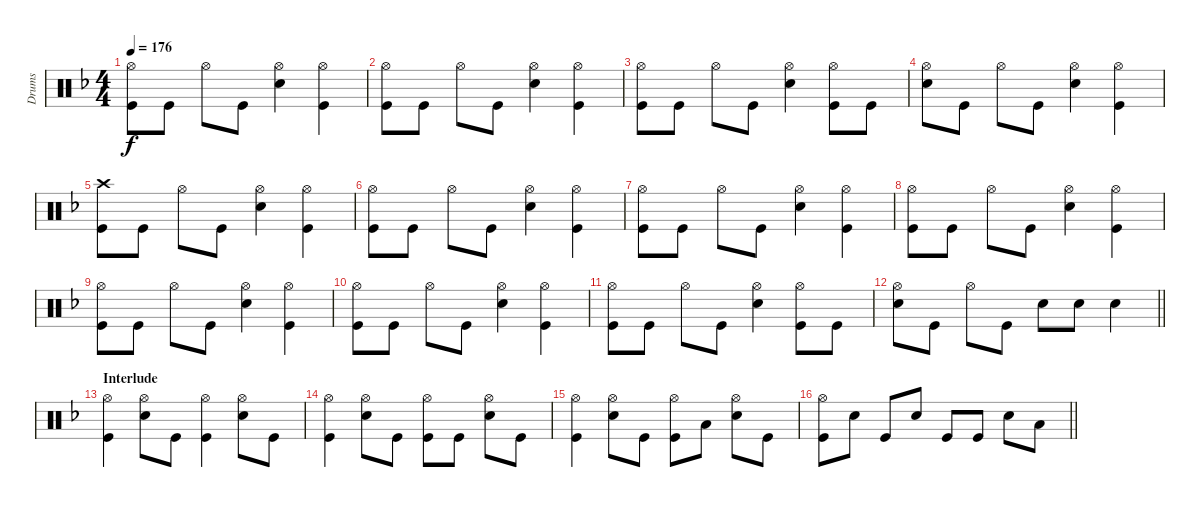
\track ("Drums" "Drums") {instrument percussion}
\staff {score}
\articulation defaults
\ts (4 4)
\tempo 176
\clef neutral
\ks f
("Hi-Hat (open)" "Kick (hit)").8{dy f} "Kick (hit)".8 "Hi-Hat (open)".8 "Kick (hit)".8 ("Hi-Hat (open)" "Snare (hit) 2").4 ("Hi-Hat (open)" "Kick (hit)").4 |
("Hi-Hat (open)" "Kick (hit)").8 "Kick (hit)".8 "Hi-Hat (open)".8 "Kick (hit)".8 ("Hi-Hat (open)" "Snare (hit) 2").4 ("Hi-Hat (open)" "Kick (hit)").4 |
("Hi-Hat (open)" "Kick (hit)").8 "Kick (hit)".8 "Hi-Hat (open)".8 "Kick (hit)".8 ("Hi-Hat (open)" "Snare (hit) 2").4 ("Hi-Hat (open)" "Kick (hit)").8 "Kick (hit)".8 |
("Hi-Hat (open)" "Snare (hit) 2").8 "Kick (hit)".8 "Hi-Hat (open)".8 "Kick (hit)".8 ("Hi-Hat (open)" "Snare (hit) 2").4 ("Hi-Hat (open)" "Kick (hit)").4 |
("Crash high (hit)" "Kick (hit)").8 "Kick (hit)".8 "Hi-Hat (open)".8 "Kick (hit)".8 ("Hi-Hat (open)" "Snare (hit) 2").4 ("Hi-Hat (open)" "Kick (hit)").4 |
("Hi-Hat (open)" "Kick (hit)").8 "Kick (hit)".8 "Hi-Hat (open)".8 "Kick (hit)".8 ("Hi-Hat (open)" "Snare (hit) 2").4 ("Hi-Hat (open)" "Kick (hit)").4 |
("Hi-Hat (open)" "Kick (hit)").8 "Kick (hit)".8 "Hi-Hat (open)".8 "Kick (hit)".8 ("Hi-Hat (open)" "Snare (hit) 2").4 ("Hi-Hat (open)" "Kick (hit)").4 |
("Hi-Hat (open)" "Kick (hit)").8 "Kick (hit)".8 "Hi-Hat (open)".8 "Kick (hit)".8 ("Hi-Hat (open)" "Snare (hit) 2").4 ("Hi-Hat (open)" "Kick (hit)").4 |
("Hi-Hat (open)" "Kick (hit)").8 "Kick (hit)".8 "Hi-Hat (open)".8 "Kick (hit)".8 ("Hi-Hat (open)" "Snare (hit) 2").4 ("Hi-Hat (open)" "Kick (hit)").4 |
("Hi-Hat (open)" "Kick (hit)").8 "Kick (hit)".8 "Hi-Hat (open)".8 "Kick (hit)".8 ("Hi-Hat (open)" "Snare (hit) 2").4 ("Hi-Hat (open)" "Kick (hit)").4 |
("Hi-Hat (open)" "Kick (hit)").8 "Kick (hit)".8 "Hi-Hat (open)".8 "Kick (hit)".8 ("Hi-Hat (open)" "Snare (hit) 2").4 ("Hi-Hat (open)" "Kick (hit)").8 "Kick (hit)".8 |
\barLineRight lightlight
("Hi-Hat (open)" "Snare (hit) 2").8 "Kick (hit)".8 "Hi-Hat (open)".8 "Kick (hit)".8 "Snare (hit) 2".8 "Snare (hit) 2".8 "Snare (hit) 2".4 |
\section ("" "Interlude")
("Hi-Hat (open)" "Kick (hit)").4 ("Hi-Hat (open)" "Snare (hit) 2").8 "Kick (hit)".8 ("Hi-Hat (open)" "Kick (hit)").4 ("Hi-Hat (open)" "Snare (hit) 2").8 "Kick (hit)".8 |
("Hi-Hat (open)" "Kick (hit)").4 ("Hi-Hat (open)" "Snare (hit) 2").8 "Kick (hit)".8 ("Hi-Hat (open)" "Kick (hit)").8 "Kick (hit)".8 ("Hi-Hat (open)" "Snare (hit) 2").8 "Kick (hit)".8 |
("Hi-Hat (open)" "Kick (hit)").4 ("Hi-Hat (open)" "Snare (hit) 2").8 "Kick (hit)".8 ("Hi-Hat (open)" "Kick (hit)").8 "Low Floor Tom (hit)".8 ("Hi-Hat (open)" "Snare (hit) 2").8 "Kick (hit)".8 |
\barLineRight lightlight
("Hi-Hat (open)" "Kick (hit)").8 "Snare (hit) 2".8 "Kick (hit)".8 "Snare (hit) 2".8 "Kick (hit)".8 "Kick (hit)".8 "Snare (hit) 2".8 "Low Floor Tom (hit)".8
